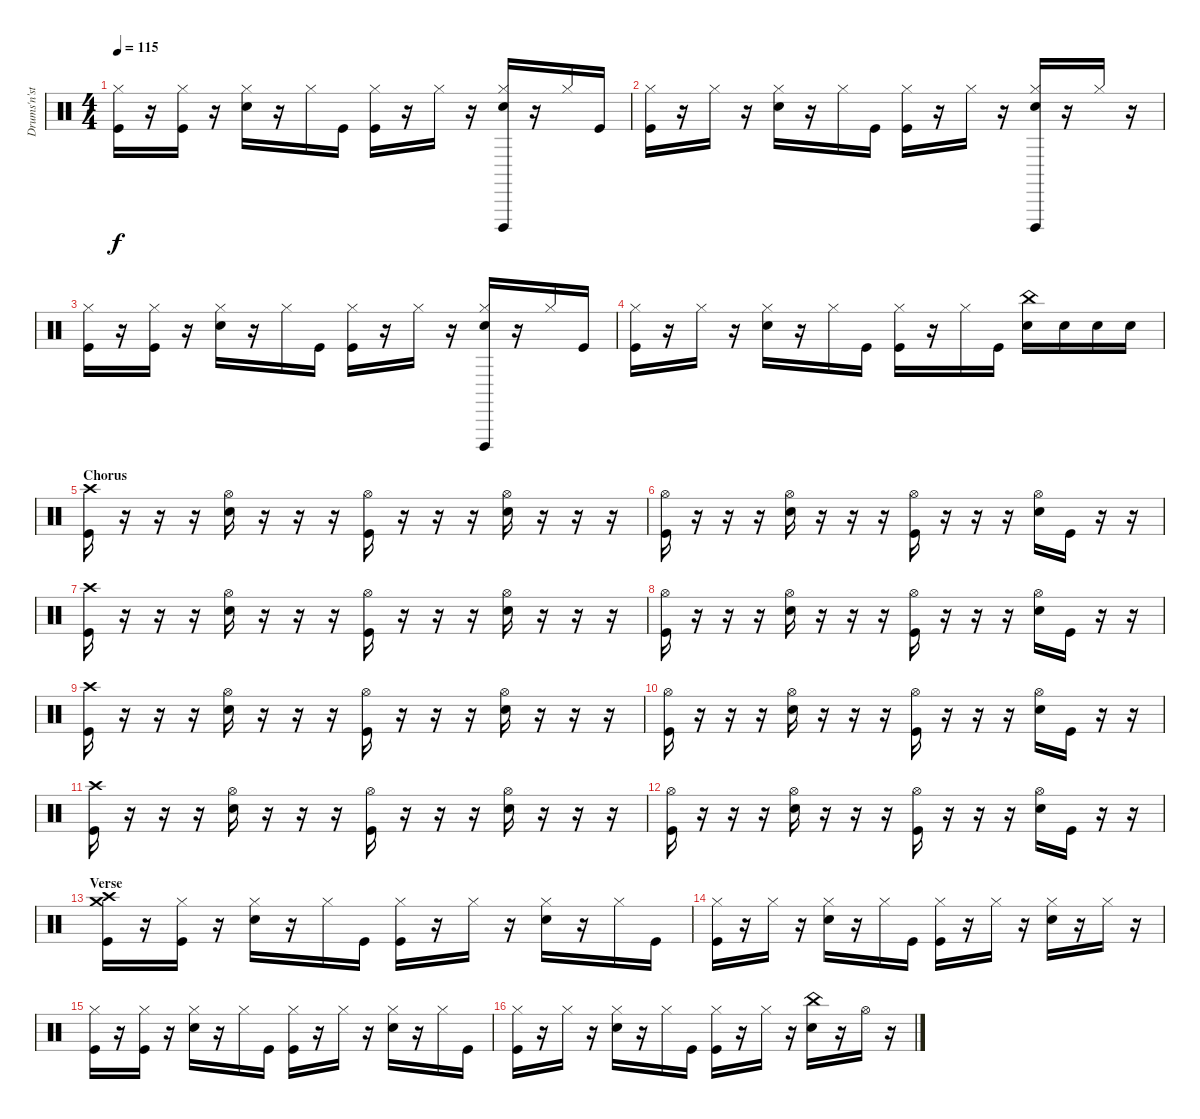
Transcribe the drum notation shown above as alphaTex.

\track ("Drums'n'stuff" "Drums'n'st") {instrument percussion}
\staff {score}
\articulation defaults
\ts (4 4)
\tempo 115
\clef neutral
\ks c
("Hi-Hat (closed)" "Kick (hit)").16{dy f} r.16 ("Hi-Hat (closed)" "Kick (hit)").16 r.16 ("Hi-Hat (closed)" "Electric Snare (hit)").16 r.16 "Hi-Hat (closed)".16 "Kick (hit)".16 ("Hi-Hat (closed)" "Kick (hit)").16 r.16 "Hi-Hat (closed)".16 r.16 ("Hi-Hat (closed)" "Electric Snare (hit)" "Cuica (open)").16 r.16 "Hi-Hat (closed)".16 "Kick (hit)".16 |
("Hi-Hat (closed)" "Kick (hit)").16 r.16 "Hi-Hat (closed)".16 r.16 ("Hi-Hat (closed)" "Electric Snare (hit)").16 r.16 "Hi-Hat (closed)".16 "Kick (hit)".16 ("Hi-Hat (closed)" "Kick (hit)").16 r.16 "Hi-Hat (closed)".16 r.16 ("Hi-Hat (closed)" "Electric Snare (hit)" "Cuica (open)").16 r.16 "Hi-Hat (closed)".16 r.16 |
("Hi-Hat (closed)" "Kick (hit)").16 r.16 ("Hi-Hat (closed)" "Kick (hit)").16 r.16 ("Hi-Hat (closed)" "Electric Snare (hit)").16 r.16 "Hi-Hat (closed)".16 "Kick (hit)".16 ("Hi-Hat (closed)" "Kick (hit)").16 r.16 "Hi-Hat (closed)".16 r.16 ("Hi-Hat (closed)" "Electric Snare (hit)" "Cuica (open)").16 r.16 "Hi-Hat (closed)".16 "Kick (hit)".16 |
("Hi-Hat (closed)" "Kick (hit)").16 r.16 "Hi-Hat (closed)".16 r.16 ("Hi-Hat (closed)" "Electric Snare (hit)").16 r.16 "Hi-Hat (closed)".16 "Kick (hit)".16 ("Hi-Hat (closed)" "Kick (hit)").16 r.16 "Hi-Hat (closed)".16 "Kick (hit)".16 ("China (hit)" "Electric Snare (hit)").16 "Electric Snare (hit)".16 "Electric Snare (hit)".16 "Electric Snare (hit)".16 |
\section ("" "Chorus")
("Crash high (hit)" "Kick (hit)").16 r.16 r.16 r.16 ("Hi-Hat (open)" "Electric Snare (hit)").16 r.16 r.16 r.16 ("Hi-Hat (open)" "Kick (hit)").16 r.16 r.16 r.16 ("Hi-Hat (open)" "Electric Snare (hit)").16 r.16 r.16 r.16 |
("Hi-Hat (open)" "Kick (hit)").16 r.16 r.16 r.16 ("Hi-Hat (open)" "Electric Snare (hit)").16 r.16 r.16 r.16 ("Hi-Hat (open)" "Kick (hit)").16 r.16 r.16 r.16 ("Hi-Hat (open)" "Electric Snare (hit)").16 "Kick (hit)".16 r.16 r.16 |
("Crash high (hit)" "Kick (hit)").16 r.16 r.16 r.16 ("Hi-Hat (open)" "Electric Snare (hit)").16 r.16 r.16 r.16 ("Hi-Hat (open)" "Kick (hit)").16 r.16 r.16 r.16 ("Hi-Hat (open)" "Electric Snare (hit)").16 r.16 r.16 r.16 |
("Hi-Hat (open)" "Kick (hit)").16 r.16 r.16 r.16 ("Hi-Hat (open)" "Electric Snare (hit)").16 r.16 r.16 r.16 ("Hi-Hat (open)" "Kick (hit)").16 r.16 r.16 r.16 ("Hi-Hat (open)" "Electric Snare (hit)").16 "Kick (hit)".16 r.16 r.16 |
("Crash high (hit)" "Kick (hit)").16 r.16 r.16 r.16 ("Hi-Hat (open)" "Electric Snare (hit)").16 r.16 r.16 r.16 ("Hi-Hat (open)" "Kick (hit)").16 r.16 r.16 r.16 ("Hi-Hat (open)" "Electric Snare (hit)").16 r.16 r.16 r.16 |
("Hi-Hat (open)" "Kick (hit)").16 r.16 r.16 r.16 ("Hi-Hat (open)" "Electric Snare (hit)").16 r.16 r.16 r.16 ("Hi-Hat (open)" "Kick (hit)").16 r.16 r.16 r.16 ("Hi-Hat (open)" "Electric Snare (hit)").16 "Kick (hit)".16 r.16 r.16 |
("Crash high (hit)" "Kick (hit)").16 r.16 r.16 r.16 ("Hi-Hat (open)" "Electric Snare (hit)").16 r.16 r.16 r.16 ("Hi-Hat (open)" "Kick (hit)").16 r.16 r.16 r.16 ("Hi-Hat (open)" "Electric Snare (hit)").16 r.16 r.16 r.16 |
("Hi-Hat (open)" "Kick (hit)").16 r.16 r.16 r.16 ("Hi-Hat (open)" "Electric Snare (hit)").16 r.16 r.16 r.16 ("Hi-Hat (open)" "Kick (hit)").16 r.16 r.16 r.16 ("Hi-Hat (open)" "Electric Snare (hit)").16 "Kick (hit)".16 r.16 r.16 |
\section ("" "Verse")
("Crash high (hit)" "Crash medium (hit)" "Kick (hit)").16 r.16 ("Hi-Hat (closed)" "Kick (hit)").16 r.16 ("Hi-Hat (closed)" "Electric Snare (hit)").16 r.16 "Hi-Hat (closed)".16 "Kick (hit)".16 ("Hi-Hat (closed)" "Kick (hit)").16 r.16 "Hi-Hat (closed)".16 r.16 ("Hi-Hat (closed)" "Electric Snare (hit)").16 r.16 "Hi-Hat (closed)".16 "Kick (hit)".16 |
("Hi-Hat (closed)" "Kick (hit)").16 r.16 "Hi-Hat (closed)".16 r.16 ("Hi-Hat (closed)" "Electric Snare (hit)").16 r.16 "Hi-Hat (closed)".16 "Kick (hit)".16 ("Hi-Hat (closed)" "Kick (hit)").16 r.16 "Hi-Hat (closed)".16 r.16 ("Hi-Hat (closed)" "Electric Snare (hit)").16 r.16 "Hi-Hat (closed)".16 r.16 |
("Hi-Hat (closed)" "Kick (hit)").16 r.16 ("Hi-Hat (closed)" "Kick (hit)").16 r.16 ("Hi-Hat (closed)" "Electric Snare (hit)").16 r.16 "Hi-Hat (closed)".16 "Kick (hit)".16 ("Hi-Hat (closed)" "Kick (hit)").16 r.16 "Hi-Hat (closed)".16 r.16 ("Hi-Hat (closed)" "Electric Snare (hit)").16 r.16 "Hi-Hat (closed)".16 "Kick (hit)".16 |
("Hi-Hat (closed)" "Kick (hit)").16 r.16 "Hi-Hat (closed)".16 r.16 ("Hi-Hat (closed)" "Electric Snare (hit)").16 r.16 "Hi-Hat (closed)".16 "Kick (hit)".16 ("Hi-Hat (closed)" "Kick (hit)").16 r.16 "Hi-Hat (closed)".16 r.16 ("China (hit)" "Electric Snare (hit)").16 r.16 "Hi-Hat (open)".16 r.16
